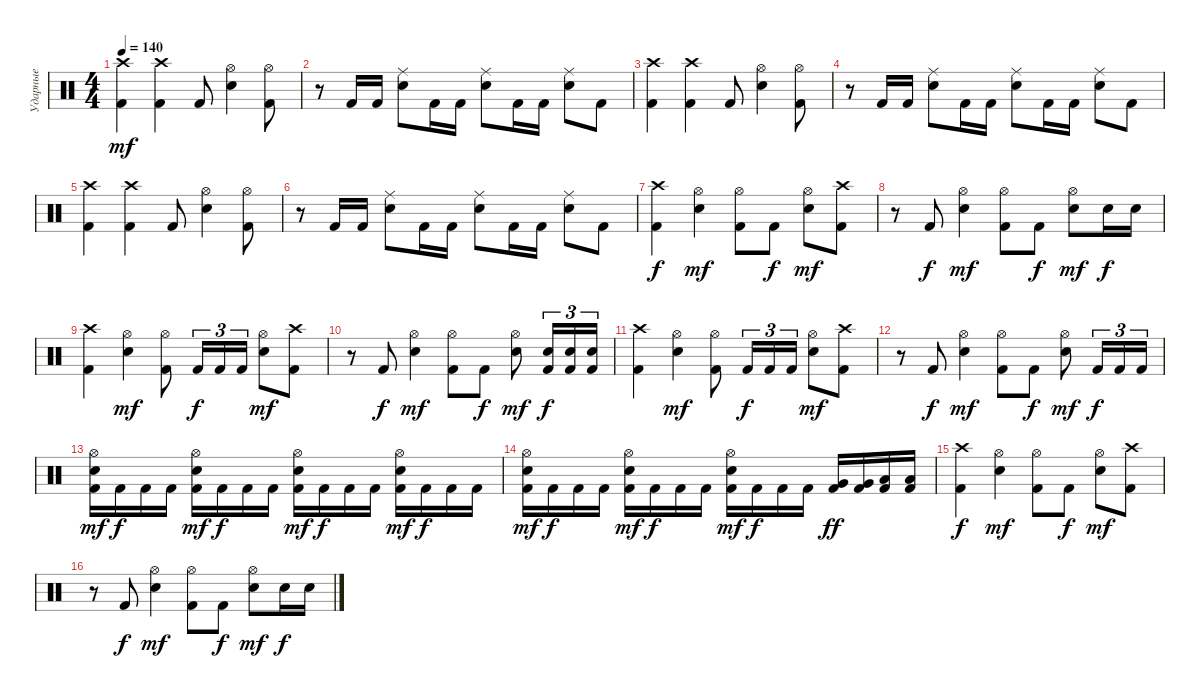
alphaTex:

\track ("Ударные" "Ударные") {instrument percussion}
\staff {score}
\articulation defaults
\ts (4 4)
\tempo 140
\clef neutral
\ks c
("Kick (hit) 2" "Crash high (hit)").4{dy mf} ("Kick (hit) 2" "Crash high (hit)").4 "Kick (hit) 2".8 ("Snare (hit) 2" "Hi-Hat (open)").4 ("Kick (hit) 2" "Hi-Hat (open)").8 |
r.8 "Kick (hit) 2".16 "Kick (hit) 2".16 ("Snare (hit) 2" "Ride (middle)").8 "Kick (hit) 2".16 "Kick (hit) 2".16 ("Snare (hit) 2" "Ride (middle)").8 "Kick (hit) 2".16 "Kick (hit) 2".16 ("Snare (hit) 2" "Ride (middle)").8 "Kick (hit) 2".8 |
("Kick (hit) 2" "Crash high (hit)").4 ("Kick (hit) 2" "Crash high (hit)").4 "Kick (hit) 2".8 ("Snare (hit) 2" "Hi-Hat (open)").4 ("Kick (hit) 2" "Hi-Hat (open)").8 |
r.8 "Kick (hit) 2".16 "Kick (hit) 2".16 ("Snare (hit) 2" "Ride (middle)").8 "Kick (hit) 2".16 "Kick (hit) 2".16 ("Snare (hit) 2" "Ride (middle)").8 "Kick (hit) 2".16 "Kick (hit) 2".16 ("Snare (hit) 2" "Ride (middle)").8 "Kick (hit) 2".8 |
("Kick (hit) 2" "Crash high (hit)").4 ("Kick (hit) 2" "Crash high (hit)").4 "Kick (hit) 2".8 ("Snare (hit) 2" "Hi-Hat (open)").4 ("Kick (hit) 2" "Hi-Hat (open)").8 |
r.8 "Kick (hit) 2".16 "Kick (hit) 2".16 ("Snare (hit) 2" "Ride (middle)").8 "Kick (hit) 2".16 "Kick (hit) 2".16 ("Snare (hit) 2" "Ride (middle)").8 "Kick (hit) 2".16 "Kick (hit) 2".16 ("Snare (hit) 2" "Ride (middle)").8 "Kick (hit) 2".8 |
("Kick (hit) 2" "Crash high (hit)").4{dy f} ("Snare (hit) 2" "Hi-Hat (open)").4{dy mf} ("Kick (hit) 2" "Hi-Hat (open)").8 "Kick (hit) 2".8{dy f} ("Snare (hit) 2" "Hi-Hat (open)").8{dy mf} ("Kick (hit) 2" "Crash high (hit)").8 |
r.8 "Kick (hit) 2".8{dy f} ("Snare (hit) 2" "Hi-Hat (open)").4{dy mf} ("Kick (hit) 2" "Hi-Hat (open)").8 "Kick (hit) 2".8{dy f} ("Snare (hit) 2" "Hi-Hat (open)").8{dy mf} "Snare (hit) 2".16{dy f} "Snare (hit) 2".16 |
("Kick (hit) 2" "Crash high (hit)").4 ("Snare (hit) 2" "Hi-Hat (open)").4{dy mf} ("Kick (hit) 2" "Hi-Hat (open)").8 "Kick (hit) 2".16{tu (3 2) dy f} "Kick (hit) 2".16{tu (3 2)} "Kick (hit) 2".16{tu (3 2)} ("Snare (hit) 2" "Hi-Hat (open)").8{dy mf} ("Kick (hit) 2" "Crash high (hit)").8 |
r.8 "Kick (hit) 2".8{dy f} ("Snare (hit) 2" "Hi-Hat (open)").4{dy mf} ("Kick (hit) 2" "Hi-Hat (open)").8 "Kick (hit) 2".8{dy f} ("Snare (hit) 2" "Hi-Hat (open)").8{dy mf} ("Kick (hit) 2" "Snare (hit) 2").16{tu (3 2) dy f} ("Kick (hit) 2" "Snare (hit) 2").16{tu (3 2)} ("Kick (hit) 2" "Snare (hit) 2").16{tu (3 2)} |
("Kick (hit) 2" "Crash high (hit)").4 ("Snare (hit) 2" "Hi-Hat (open)").4{dy mf} ("Kick (hit) 2" "Hi-Hat (open)").8 "Kick (hit) 2".16{tu (3 2) dy f} "Kick (hit) 2".16{tu (3 2)} "Kick (hit) 2".16{tu (3 2)} ("Snare (hit) 2" "Hi-Hat (open)").8{dy mf} ("Kick (hit) 2" "Crash high (hit)").8 |
r.8 "Kick (hit) 2".8{dy f} ("Snare (hit) 2" "Hi-Hat (open)").4{dy mf} ("Kick (hit) 2" "Hi-Hat (open)").8 "Kick (hit) 2".8{dy f} ("Snare (hit) 2" "Hi-Hat (open)").8{dy mf} "Kick (hit) 2".16{tu (3 2) dy f} "Kick (hit) 2".16{tu (3 2)} "Kick (hit) 2".16{tu (3 2)} |
("Kick (hit) 2" "Snare (hit) 2" "Hi-Hat (open)").16{dy mf} "Kick (hit) 2".16{dy f} "Kick (hit) 2".16 "Kick (hit) 2".16 ("Kick (hit) 2" "Snare (hit) 2" "Hi-Hat (open)").16{dy mf} "Kick (hit) 2".16{dy f} "Kick (hit) 2".16 "Kick (hit) 2".16 ("Kick (hit) 2" "Snare (hit) 2" "Hi-Hat (open)").16{dy mf} "Kick (hit) 2".16{dy f} "Kick (hit) 2".16 "Kick (hit) 2".16 ("Kick (hit) 2" "Snare (hit) 2" "Hi-Hat (open)").16{dy mf} "Kick (hit) 2".16{dy f} "Kick (hit) 2".16 "Kick (hit) 2".16 |
("Kick (hit) 2" "Snare (hit) 2" "Hi-Hat (open)").16{dy mf} "Kick (hit) 2".16{dy f} "Kick (hit) 2".16 "Kick (hit) 2".16 ("Kick (hit) 2" "Snare (hit) 2" "Hi-Hat (open)").16{dy mf} "Kick (hit) 2".16{dy f} "Kick (hit) 2".16 "Kick (hit) 2".16 ("Kick (hit) 2" "Snare (hit) 2" "Hi-Hat (open)").16{dy mf} "Kick (hit) 2".16{dy f} "Kick (hit) 2".16 "Kick (hit) 2".16 ("Kick (hit) 2" "Very Low Tom (hit)").16{dy ff} ("Kick (hit) 2" "Very Low Tom (hit)").16 ("Kick (hit) 2" "Low Floor Tom (hit)").16 ("Kick (hit) 2" "Low Floor Tom (hit)").16 |
("Kick (hit) 2" "Crash high (hit)").4{dy f} ("Snare (hit) 2" "Hi-Hat (open)").4{dy mf} ("Kick (hit) 2" "Hi-Hat (open)").8 "Kick (hit) 2".8{dy f} ("Snare (hit) 2" "Hi-Hat (open)").8{dy mf} ("Kick (hit) 2" "Crash high (hit)").8 |
r.8 "Kick (hit) 2".8{dy f} ("Snare (hit) 2" "Hi-Hat (open)").4{dy mf} ("Kick (hit) 2" "Hi-Hat (open)").8 "Kick (hit) 2".8{dy f} ("Snare (hit) 2" "Hi-Hat (open)").8{dy mf} "Snare (hit) 2".16{dy f} "Snare (hit) 2".16
